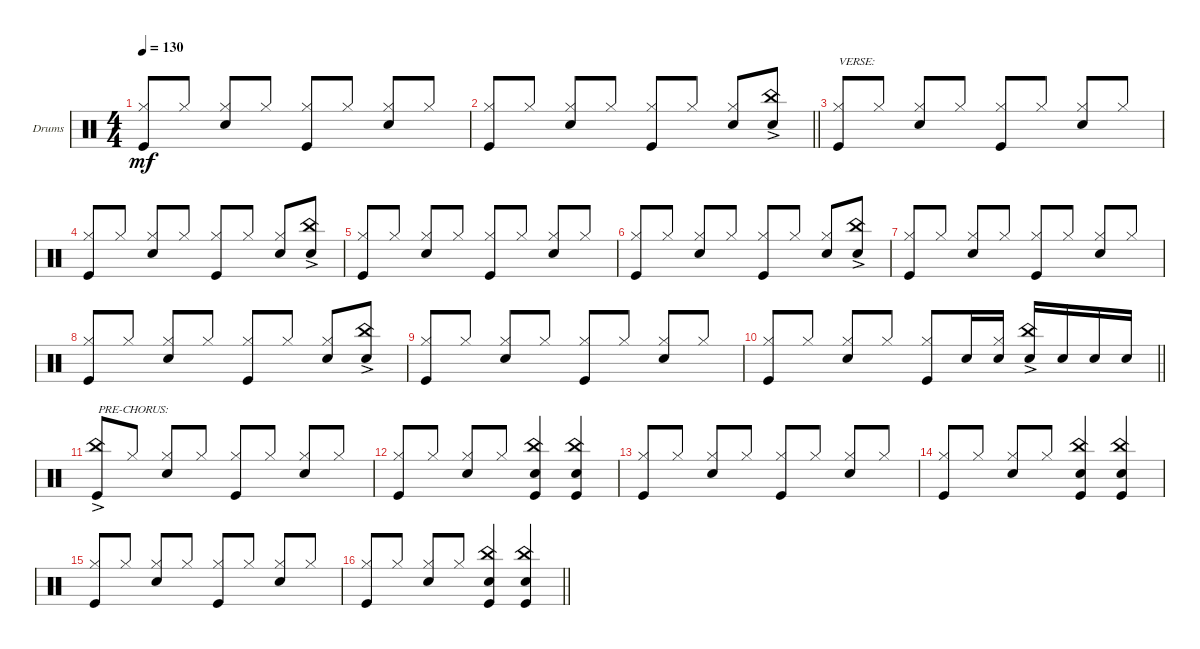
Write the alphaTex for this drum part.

\defaultSystemsLayout 4
\bracketExtendMode groupsimilarinstruments
\firstSystemTrackNameOrientation horizontal
\otherSystemsTrackNameOrientation horizontal
\track ("Drumkit" "Drums") {instrument percussion}
\staff {score}
\articulation defaults
\ts (4 4)
\tempo 130
\clef neutral
\scale
0.333333
\ks c
("Hi-Hat (closed)" "Kick (hit)").8{dy mf beam invert} "Hi-Hat (closed)".8 ("Hi-Hat (closed)" "Snare (hit) 2").8{beam invert} "Hi-Hat (closed)".8 ("Hi-Hat (closed)" "Kick (hit)").8{beam invert} "Hi-Hat (closed)".8 ("Hi-Hat (closed)" "Snare (hit) 2").8{beam invert} "Hi-Hat (closed)".8 |
\scale
0.333333
\barLineRight lightlight
("Hi-Hat (closed)" "Kick (hit)").8{beam invert} "Hi-Hat (closed)".8 ("Hi-Hat (closed)" "Snare (hit) 2").8{beam invert} "Hi-Hat (closed)".8 ("Hi-Hat (closed)" "Kick (hit)").8{beam invert} "Hi-Hat (closed)".8 ("Hi-Hat (closed)" "Snare (hit) 2").8{beam invert} ("Snare (hit) 2" "China (hit)"{ac}).8 |
\scale
0.333333 ("Hi-Hat (closed)" "Kick (hit)").8{txt "VERSE:" beam invert} "Hi-Hat (closed)".8 ("Hi-Hat (closed)" "Snare (hit) 2").8{beam invert} "Hi-Hat (closed)".8 ("Hi-Hat (closed)" "Kick (hit)").8{beam invert} "Hi-Hat (closed)".8 ("Hi-Hat (closed)" "Snare (hit) 2").8{beam invert} "Hi-Hat (closed)".8 |
\scale
0.333333 ("Hi-Hat (closed)" "Kick (hit)").8{beam invert} "Hi-Hat (closed)".8 ("Hi-Hat (closed)" "Snare (hit) 2").8{beam invert} "Hi-Hat (closed)".8 ("Hi-Hat (closed)" "Kick (hit)").8{beam invert} "Hi-Hat (closed)".8 ("Hi-Hat (closed)" "Snare (hit) 2").8{beam invert} ("Snare (hit) 2" "China (hit)"{ac}).8 |
\scale
0.333333 ("Hi-Hat (closed)" "Kick (hit)").8{beam invert} "Hi-Hat (closed)".8 ("Hi-Hat (closed)" "Snare (hit) 2").8{beam invert} "Hi-Hat (closed)".8 ("Hi-Hat (closed)" "Kick (hit)").8{beam invert} "Hi-Hat (closed)".8 ("Hi-Hat (closed)" "Snare (hit) 2").8{beam invert} "Hi-Hat (closed)".8 |
\scale
0.333333 ("Hi-Hat (closed)" "Kick (hit)").8{beam invert} "Hi-Hat (closed)".8 ("Hi-Hat (closed)" "Snare (hit) 2").8{beam invert} "Hi-Hat (closed)".8 ("Hi-Hat (closed)" "Kick (hit)").8{beam invert} "Hi-Hat (closed)".8 ("Hi-Hat (closed)" "Snare (hit) 2").8{beam invert} ("Snare (hit) 2" "China (hit)"{ac}).8 |
\scale
0.333333 ("Hi-Hat (closed)" "Kick (hit)").8{beam invert} "Hi-Hat (closed)".8 ("Hi-Hat (closed)" "Snare (hit) 2").8{beam invert} "Hi-Hat (closed)".8 ("Hi-Hat (closed)" "Kick (hit)").8{beam invert} "Hi-Hat (closed)".8 ("Hi-Hat (closed)" "Snare (hit) 2").8{beam invert} "Hi-Hat (closed)".8 |
\scale
0.333333 ("Hi-Hat (closed)" "Kick (hit)").8{beam invert} "Hi-Hat (closed)".8 ("Hi-Hat (closed)" "Snare (hit) 2").8{beam invert} "Hi-Hat (closed)".8 ("Hi-Hat (closed)" "Kick (hit)").8{beam invert} "Hi-Hat (closed)".8 ("Hi-Hat (closed)" "Snare (hit) 2").8{beam invert} ("Snare (hit) 2" "China (hit)"{ac}).8 |
\scale
0.333333 ("Hi-Hat (closed)" "Kick (hit)").8{beam invert} "Hi-Hat (closed)".8 ("Hi-Hat (closed)" "Snare (hit) 2").8{beam invert} "Hi-Hat (closed)".8 ("Hi-Hat (closed)" "Kick (hit)").8{beam invert} "Hi-Hat (closed)".8 ("Hi-Hat (closed)" "Snare (hit) 2").8{beam invert} "Hi-Hat (closed)".8 |
\scale
0.333333
\barLineRight lightlight
("Hi-Hat (closed)" "Kick (hit)").8{beam invert} "Hi-Hat (closed)".8 ("Hi-Hat (closed)" "Snare (hit) 2").8{beam invert} "Hi-Hat (closed)".8 ("Hi-Hat (closed)" "Kick (hit)").8{beam invert} "Snare (hit) 2".16 ("Hi-Hat (closed)" "Snare (hit) 2").16 ("Snare (hit) 2" "China (hit)"{ac}).16{beam invert} "Snare (hit) 2".16 "Snare (hit) 2".16 "Snare (hit) 2".16 |
\scale
0.333333 ("Kick (hit)" "China (hit)"{ac}).8{txt "PRE-CHORUS:"} "Hi-Hat (closed)".8 ("Hi-Hat (closed)" "Snare (hit) 2").8{beam invert} "Hi-Hat (closed)".8 ("Hi-Hat (closed)" "Kick (hit)").8{beam invert} "Hi-Hat (closed)".8 ("Hi-Hat (closed)" "Snare (hit) 2").8{beam invert} "Hi-Hat (closed)".8 |
\scale
0.333333 ("Hi-Hat (closed)" "Kick (hit)").8{beam invert} "Hi-Hat (closed)".8 ("Hi-Hat (closed)" "Snare (hit) 2").8{beam invert} "Hi-Hat (closed)".8 ("Snare (hit) 2" "China (hit)" "Kick (hit)").4{beam invert} ("China (hit)" "Snare (hit) 2" "Kick (hit)").4{beam invert} |
\scale
0.333333 ("Hi-Hat (closed)" "Kick (hit)").8{beam invert} "Hi-Hat (closed)".8 ("Hi-Hat (closed)" "Snare (hit) 2").8{beam invert} "Hi-Hat (closed)".8 ("Hi-Hat (closed)" "Kick (hit)").8{beam invert} "Hi-Hat (closed)".8 ("Hi-Hat (closed)" "Snare (hit) 2").8{beam invert} "Hi-Hat (closed)".8 |
\scale
0.333333 ("Hi-Hat (closed)" "Kick (hit)").8{beam invert} "Hi-Hat (closed)".8 ("Hi-Hat (closed)" "Snare (hit) 2").8{beam invert} "Hi-Hat (closed)".8 ("Snare (hit) 2" "China (hit)" "Kick (hit)").4{beam invert} ("China (hit)" "Snare (hit) 2" "Kick (hit)").4{beam invert} |
\scale
0.333333 ("Hi-Hat (closed)" "Kick (hit)").8{beam invert} "Hi-Hat (closed)".8 ("Hi-Hat (closed)" "Snare (hit) 2").8{beam invert} "Hi-Hat (closed)".8 ("Hi-Hat (closed)" "Kick (hit)").8{beam invert} "Hi-Hat (closed)".8 ("Hi-Hat (closed)" "Snare (hit) 2").8{beam invert} "Hi-Hat (closed)".8 |
\scale
0.333333
\barLineRight lightlight
("Hi-Hat (closed)" "Kick (hit)").8{beam invert} "Hi-Hat (closed)".8 ("Hi-Hat (closed)" "Snare (hit) 2").8{beam invert} "Hi-Hat (closed)".8 ("Snare (hit) 2" "China (hit)" "Kick (hit)").4{beam invert} ("China (hit)" "Snare (hit) 2" "Kick (hit)").4{beam invert}
